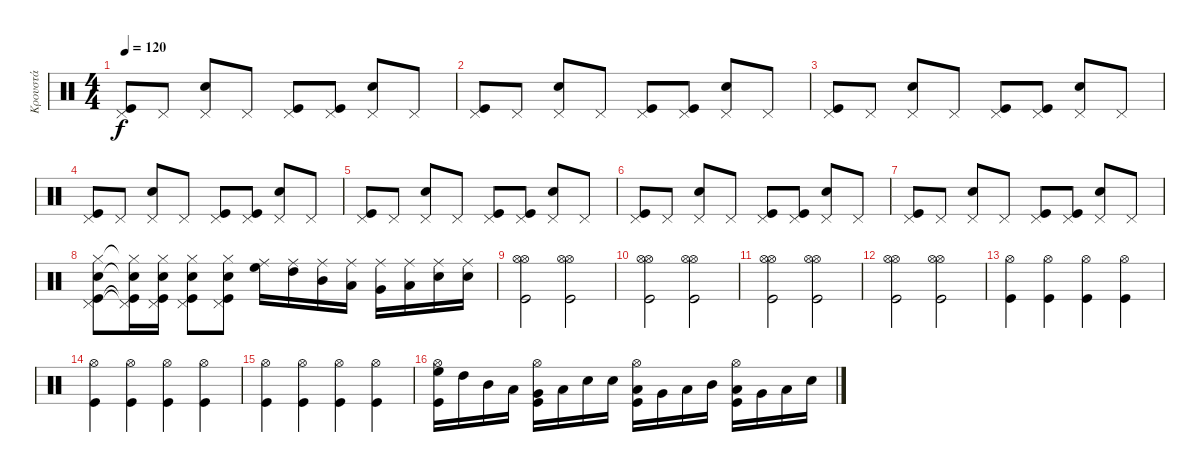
\track ("Κρουστά" "Κρουστά") {instrument percussion}
\staff {score}
\articulation defaults
\ts (4 4)
\tempo 120
\clef neutral
\ks c
("Pedal Hi-Hat (hit)" "Kick (hit)").8{dy f} "Pedal Hi-Hat (hit)".8 ("Pedal Hi-Hat (hit)" "Snare (hit) 2").8 "Pedal Hi-Hat (hit)".8 ("Pedal Hi-Hat (hit)" "Kick (hit)").8 ("Pedal Hi-Hat (hit)" "Kick (hit)").8 ("Pedal Hi-Hat (hit)" "Snare (hit) 2").8 "Pedal Hi-Hat (hit)".8 |
("Pedal Hi-Hat (hit)" "Kick (hit)").8 "Pedal Hi-Hat (hit)".8 ("Pedal Hi-Hat (hit)" "Snare (hit) 2").8 "Pedal Hi-Hat (hit)".8 ("Pedal Hi-Hat (hit)" "Kick (hit)").8 ("Pedal Hi-Hat (hit)" "Kick (hit)").8 ("Pedal Hi-Hat (hit)" "Snare (hit) 2").8 "Pedal Hi-Hat (hit)".8 |
("Pedal Hi-Hat (hit)" "Kick (hit)").8 "Pedal Hi-Hat (hit)".8 ("Pedal Hi-Hat (hit)" "Snare (hit) 2").8 "Pedal Hi-Hat (hit)".8 ("Pedal Hi-Hat (hit)" "Kick (hit)").8 ("Pedal Hi-Hat (hit)" "Kick (hit)").8 ("Pedal Hi-Hat (hit)" "Snare (hit) 2").8 "Pedal Hi-Hat (hit)".8 |
("Pedal Hi-Hat (hit)" "Kick (hit)").8 "Pedal Hi-Hat (hit)".8 ("Pedal Hi-Hat (hit)" "Snare (hit) 2").8 "Pedal Hi-Hat (hit)".8 ("Pedal Hi-Hat (hit)" "Kick (hit)").8 ("Pedal Hi-Hat (hit)" "Kick (hit)").8 ("Pedal Hi-Hat (hit)" "Snare (hit) 2").8 "Pedal Hi-Hat (hit)".8 |
("Pedal Hi-Hat (hit)" "Kick (hit)").8 "Pedal Hi-Hat (hit)".8 ("Pedal Hi-Hat (hit)" "Snare (hit) 2").8 "Pedal Hi-Hat (hit)".8 ("Pedal Hi-Hat (hit)" "Kick (hit)").8 ("Pedal Hi-Hat (hit)" "Kick (hit)").8 ("Pedal Hi-Hat (hit)" "Snare (hit) 2").8 "Pedal Hi-Hat (hit)".8 |
("Pedal Hi-Hat (hit)" "Kick (hit)").8 "Pedal Hi-Hat (hit)".8 ("Pedal Hi-Hat (hit)" "Snare (hit) 2").8 "Pedal Hi-Hat (hit)".8 ("Pedal Hi-Hat (hit)" "Kick (hit)").8 ("Pedal Hi-Hat (hit)" "Kick (hit)").8 ("Pedal Hi-Hat (hit)" "Snare (hit) 2").8 "Pedal Hi-Hat (hit)".8 |
("Pedal Hi-Hat (hit)" "Kick (hit)").8 "Pedal Hi-Hat (hit)".8 ("Pedal Hi-Hat (hit)" "Snare (hit) 2").8 "Pedal Hi-Hat (hit)".8 ("Pedal Hi-Hat (hit)" "Kick (hit)").8 ("Pedal Hi-Hat (hit)" "Kick (hit)").8 ("Pedal Hi-Hat (hit)" "Snare (hit) 2").8 "Pedal Hi-Hat (hit)".8 |
("Hi-Hat (closed)" "Pedal Hi-Hat (hit)" "Snare (hit) 2" "Kick (hit)").8 ("Hi-Hat (closed)"{t} "Pedal Hi-Hat (hit)"{t} "Snare (hit) 2"{t} "Kick (hit)"{t}).16 ("Hi-Hat (closed)" "Pedal Hi-Hat (hit)" "Snare (hit) 2" "Kick (hit)").16 ("Hi-Hat (closed)" "Pedal Hi-Hat (hit)" "Snare (hit) 2" "Kick (hit)").8 ("Hi-Hat (closed)" "Pedal Hi-Hat (hit)" "Snare (hit) 2" "Kick (hit)").8 ("High Floor Tom (hit)" "Ride (middle)").16{volume 16} ("High Tom (hit)" "Ride (middle)").16 ("Mid Tom (hit)" "Ride (middle)").16 ("Low Tom (hit)" "Ride (middle)").16 ("Very Low Tom (hit)" "Ride (middle)").16 ("Low Floor Tom (hit)" "Ride (middle)").16 ("Snare (hit) 2" "Ride (middle)").16 ("Snare (hit) 2" "Ride (middle)").16 |
("Kick (hit)" "Hi-Hat (open)" "Hi-Hat (open)").2 ("Kick (hit)" "Hi-Hat (open)" "Hi-Hat (open)").2 |
("Kick (hit)" "Hi-Hat (open)" "Hi-Hat (open)").2 ("Kick (hit)" "Hi-Hat (open)" "Hi-Hat (open)").2 |
("Kick (hit)" "Hi-Hat (open)" "Hi-Hat (open)").2 ("Kick (hit)" "Hi-Hat (open)" "Hi-Hat (open)").2 |
("Kick (hit)" "Hi-Hat (open)" "Hi-Hat (open)").2 ("Kick (hit)" "Hi-Hat (open)" "Hi-Hat (open)").2 |
("Kick (hit)" "Hi-Hat (open)").4 ("Kick (hit)" "Hi-Hat (open)").4 ("Kick (hit)" "Hi-Hat (open)").4 ("Kick (hit)" "Hi-Hat (open)").4 |
("Kick (hit)" "Hi-Hat (open)").4 ("Kick (hit)" "Hi-Hat (open)").4 ("Kick (hit)" "Hi-Hat (open)").4 ("Kick (hit)" "Hi-Hat (open)").4 |
("Kick (hit)" "Hi-Hat (open)").4 ("Kick (hit)" "Hi-Hat (open)").4 ("Kick (hit)" "Hi-Hat (open)").4 ("Kick (hit)" "Hi-Hat (open)").4 |
("High Floor Tom (hit)" "Hi-Hat (open)" "Kick (hit)").16 "High Tom (hit)".16 "Mid Tom (hit)".16 "Low Tom (hit)".16 ("Very Low Tom (hit)" "Hi-Hat (open)" "Kick (hit)").16 "Low Floor Tom (hit)".16 "Snare (hit) 2".16 "Snare (hit) 2".16 ("Low Floor Tom (hit)" "Hi-Hat (open)" "Kick (hit)").16 "Very Low Tom (hit)".16 "Low Tom (hit)".16 "Mid Tom (hit)".16 ("Low Tom (hit)" "Hi-Hat (open)" "Kick (hit)").16 "Very Low Tom (hit)".16 "Low Floor Tom (hit)".16 "Snare (hit) 2".16
